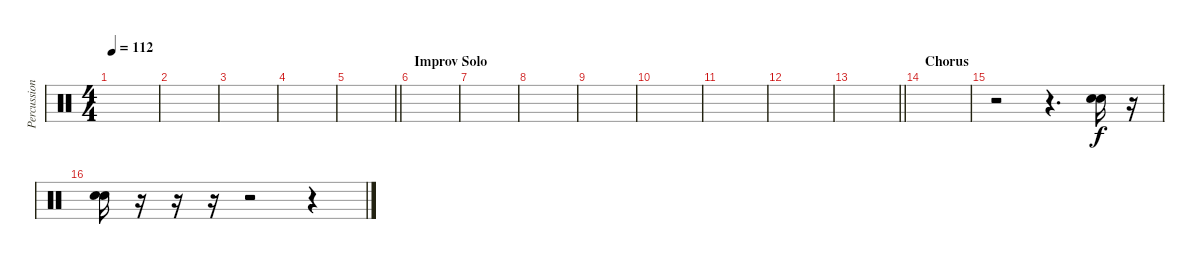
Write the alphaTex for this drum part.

\track ("Percussion" "Percussion") {instrument percussion}
\staff {score}
\articulation defaults
\ts (4 4)
\tempo 112
\clef neutral
\ks c
|
|
|
|
\barLineRight lightlight
|
\section ("" "Improv Solo")
|
|
|
|
|
|
|
\barLineRight lightlight
|
\section ("" "Chorus")
|
r.2 r.4{d} ("Hand Clap (hit)" "Hand Clap (hit)").16 r.16 |
("Hand Clap (hit)" "Hand Clap (hit)").16 r.16 r.16 r.16 r.2 r.4
